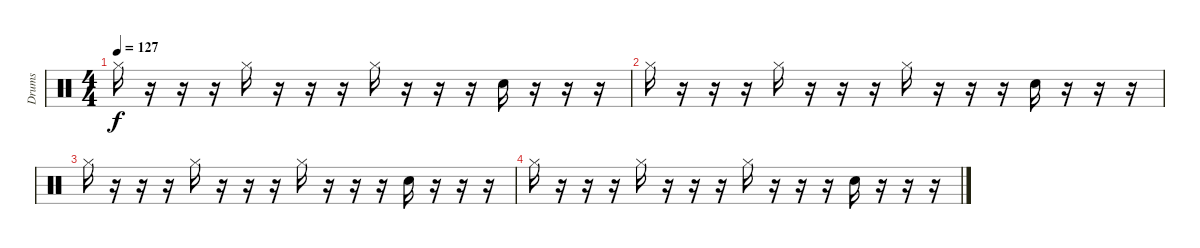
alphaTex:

\track ("Drums" "Drums") {instrument percussion}
\staff {score}
\articulation defaults
\ts (4 4)
\tempo 127
\clef neutral
\ks c "Hi-Hat (closed)".16{dy f}
r.16 r.16 r.16 "Hi-Hat (closed)".16 r.16 r.16 r.16 "Hi-Hat (closed)".16 r.16 r.16 r.16 "Hand Clap (hit)".16 r.16 r.16 r.16 |
"Hi-Hat (closed)".16 r.16 r.16 r.16 "Hi-Hat (closed)".16 r.16 r.16 r.16 "Hi-Hat (closed)".16 r.16 r.16 r.16 "Hand Clap (hit)".16 r.16 r.16 r.16 |
"Hi-Hat (closed)".16 r.16 r.16 r.16 "Hi-Hat (closed)".16 r.16 r.16 r.16 "Hi-Hat (closed)".16 r.16 r.16 r.16 "Hand Clap (hit)".16 r.16 r.16 r.16 |
"Hi-Hat (closed)".16 r.16 r.16 r.16 "Hi-Hat (closed)".16 r.16 r.16 r.16 "Hi-Hat (closed)".16 r.16 r.16 r.16 "Hand Clap (hit)".16 r.16 r.16 r.16
